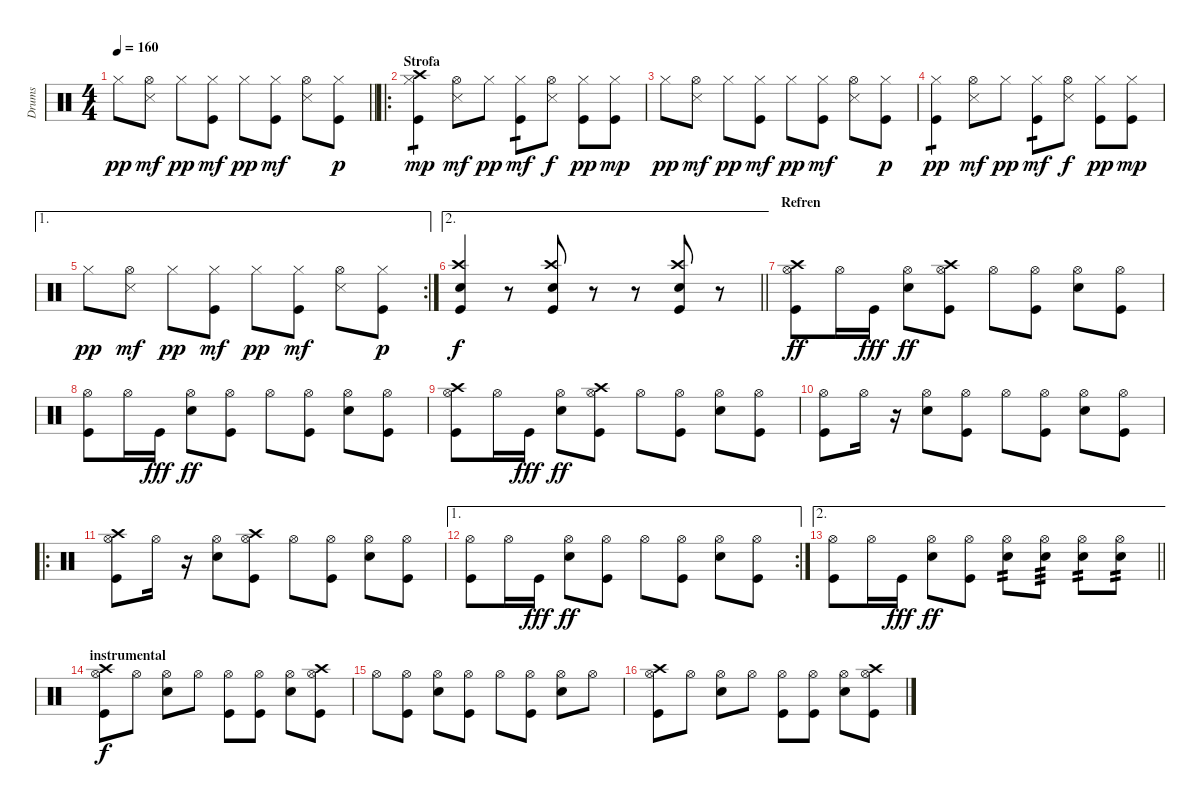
\track ("Drums" "Drums") {instrument percussion}
\staff {score}
\articulation defaults
\ts (4 4)
\tempo 160
\clef neutral
\barLineRight lightlight
\ks c "Hi-Hat (closed)".8{dy pp}
("Snare (side stick) 3" "Hi-Hat (open)").8{dy mf} "Hi-Hat (closed)".8{dy pp} ("Kick (hit)" "Hi-Hat (closed)").8{dy mf} "Hi-Hat (closed)".8{dy pp} ("Kick (hit)" "Hi-Hat (closed)").8{dy mf} ("Snare (side stick) 3" "Hi-Hat (open)").8 ("Kick (hit)" "Hi-Hat (closed)").8{dy p} |
\ro
\section ("" "Strofa")
("Kick (hit)" "Hi-Hat (closed)" "Crash high (hit)").4{tp 1 dy mp} ("Snare (side stick) 3" "Hi-Hat (open)").8{dy mf} "Hi-Hat (closed)".8{dy pp} ("Kick (hit)" "Hi-Hat (closed)").8{tp 1 dy mf} ("Snare (side stick) 3" "Hi-Hat (open)").8{dy f} ("Kick (hit)" "Hi-Hat (closed)").8{dy pp} ("Kick (hit)" "Hi-Hat (closed)").8{dy mp} |
"Hi-Hat (closed)".8{dy pp} ("Snare (side stick) 3" "Hi-Hat (open)").8{dy mf} "Hi-Hat (closed)".8{dy pp} ("Kick (hit)" "Hi-Hat (closed)").8{dy mf} "Hi-Hat (closed)".8{dy pp} ("Kick (hit)" "Hi-Hat (closed)").8{dy mf} ("Snare (side stick) 3" "Hi-Hat (open)").8 ("Kick (hit)" "Hi-Hat (closed)").8{dy p} |
("Kick (hit)" "Hi-Hat (closed)").4{tp 1 dy pp} ("Snare (side stick) 3" "Hi-Hat (open)").8{dy mf} "Hi-Hat (closed)".8{dy pp} ("Kick (hit)" "Hi-Hat (closed)").8{tp 1 dy mf} ("Snare (side stick) 3" "Hi-Hat (open)").8{dy f} ("Kick (hit)" "Hi-Hat (closed)").8{dy pp} ("Kick (hit)" "Hi-Hat (closed)").8{dy mp} |
\ae 1
\rc 2 "Hi-Hat (closed)".8{dy pp}
("Snare (side stick) 3" "Hi-Hat (open)").8{dy mf} "Hi-Hat (closed)".8{dy pp} ("Kick (hit)" "Hi-Hat (closed)").8{dy mf} "Hi-Hat (closed)".8{dy pp} ("Kick (hit)" "Hi-Hat (closed)").8{dy mf} ("Snare (side stick) 3" "Hi-Hat (open)").8 ("Kick (hit)" "Hi-Hat (closed)").8{dy p} |
\ae 2
\barLineRight lightlight
("Kick (hit)" "Snare (hit) 2" "Crash high (hit)").4{dy f} r.8 ("Kick (hit)" "Snare (hit) 2" "Crash high (hit)").8 r.8 r.8 ("Kick (hit)" "Snare (hit) 2" "Crash high (hit)").8 r.8 |
\section ("" "Refren")
("Kick (hit)" "Hi-Hat (open)" "Crash high (hit)").8{dy ff} "Hi-Hat (open)".16 "Kick (hit)".16{dy fff} ("Snare (hit) 2" "Hi-Hat (open)").8{dy ff} ("Kick (hit)" "Hi-Hat (open)" "Crash high (hit)").8 "Hi-Hat (open)".8 ("Kick (hit)" "Hi-Hat (open)").8 ("Snare (hit) 2" "Hi-Hat (open)").8 ("Kick (hit)" "Hi-Hat (open)").8 |
("Kick (hit)" "Hi-Hat (open)").8 "Hi-Hat (open)".16 "Kick (hit)".16{dy fff} ("Snare (hit) 2" "Hi-Hat (open)").8{dy ff} ("Kick (hit)" "Hi-Hat (open)").8 "Hi-Hat (open)".8 ("Kick (hit)" "Hi-Hat (open)").8 ("Snare (hit) 2" "Hi-Hat (open)").8 ("Kick (hit)" "Hi-Hat (open)").8 |
("Kick (hit)" "Hi-Hat (open)" "Crash high (hit)").8 "Hi-Hat (open)".16 "Kick (hit)".16{dy fff} ("Snare (hit) 2" "Hi-Hat (open)").8{dy ff} ("Kick (hit)" "Hi-Hat (open)" "Crash high (hit)").8 "Hi-Hat (open)".8 ("Kick (hit)" "Hi-Hat (open)").8 ("Snare (hit) 2" "Hi-Hat (open)").8 ("Kick (hit)" "Hi-Hat (open)").8 |
("Kick (hit)" "Hi-Hat (open)").8 "Hi-Hat (open)".16 r.16 ("Snare (hit) 2" "Hi-Hat (open)").8 ("Kick (hit)" "Hi-Hat (open)").8 "Hi-Hat (open)".8 ("Kick (hit)" "Hi-Hat (open)").8 ("Snare (hit) 2" "Hi-Hat (open)").8 ("Kick (hit)" "Hi-Hat (open)").8 |
\ro
("Kick (hit)" "Hi-Hat (open)" "Crash high (hit)").8 "Hi-Hat (open)".16 r.16 ("Snare (hit) 2" "Hi-Hat (open)").8 ("Kick (hit)" "Hi-Hat (open)" "Crash high (hit)").8 "Hi-Hat (open)".8 ("Kick (hit)" "Hi-Hat (open)").8 ("Snare (hit) 2" "Hi-Hat (open)").8 ("Kick (hit)" "Hi-Hat (open)").8 |
\ae 1
\rc 2
("Kick (hit)" "Hi-Hat (open)").8 "Hi-Hat (open)".16 "Kick (hit)".16{dy fff} ("Snare (hit) 2" "Hi-Hat (open)").8{dy ff} ("Kick (hit)" "Hi-Hat (open)").8 "Hi-Hat (open)".8 ("Kick (hit)" "Hi-Hat (open)").8 ("Snare (hit) 2" "Hi-Hat (open)").8 ("Kick (hit)" "Hi-Hat (open)").8 |
\ae 2
\barLineRight lightlight
("Kick (hit)" "Hi-Hat (open)").8 "Hi-Hat (open)".16 "Kick (hit)".16{dy fff} ("Snare (hit) 2" "Hi-Hat (open)").8{dy ff} ("Kick (hit)" "Hi-Hat (open)").8 ("Snare (hit) 2" "Hi-Hat (open)").8{tp 2} ("Snare (hit) 2" "Hi-Hat (open)").8{tp 3} ("Snare (hit) 2" "Hi-Hat (open)").8{tp 2} ("Snare (hit) 2" "Hi-Hat (open)").8{tp 2} |
\section ("" "instrumental")
("Kick (hit)" "Hi-Hat (open)" "Crash high (hit)").8{dy f} "Hi-Hat (open)".8 ("Snare (hit) 2" "Hi-Hat (open)").8 "Hi-Hat (open)".8 ("Kick (hit)" "Hi-Hat (open)").8 ("Kick (hit)" "Hi-Hat (open)").8 ("Snare (hit) 2" "Hi-Hat (open)").8 ("Kick (hit)" "Hi-Hat (open)" "Crash high (hit)").8 |
"Hi-Hat (open)".8 ("Kick (hit)" "Hi-Hat (open)").8 ("Snare (hit) 2" "Hi-Hat (open)").8 ("Kick (hit)" "Hi-Hat (open)").8 "Hi-Hat (open)".8 ("Kick (hit)" "Hi-Hat (open)").8 ("Snare (hit) 2" "Hi-Hat (open)").8 "Hi-Hat (open)".8 |
("Kick (hit)" "Hi-Hat (open)" "Crash high (hit)").8 "Hi-Hat (open)".8 ("Snare (hit) 2" "Hi-Hat (open)").8 "Hi-Hat (open)".8 ("Kick (hit)" "Hi-Hat (open)").8 ("Kick (hit)" "Hi-Hat (open)").8 ("Snare (hit) 2" "Hi-Hat (open)").8 ("Kick (hit)" "Hi-Hat (open)" "Crash high (hit)").8
